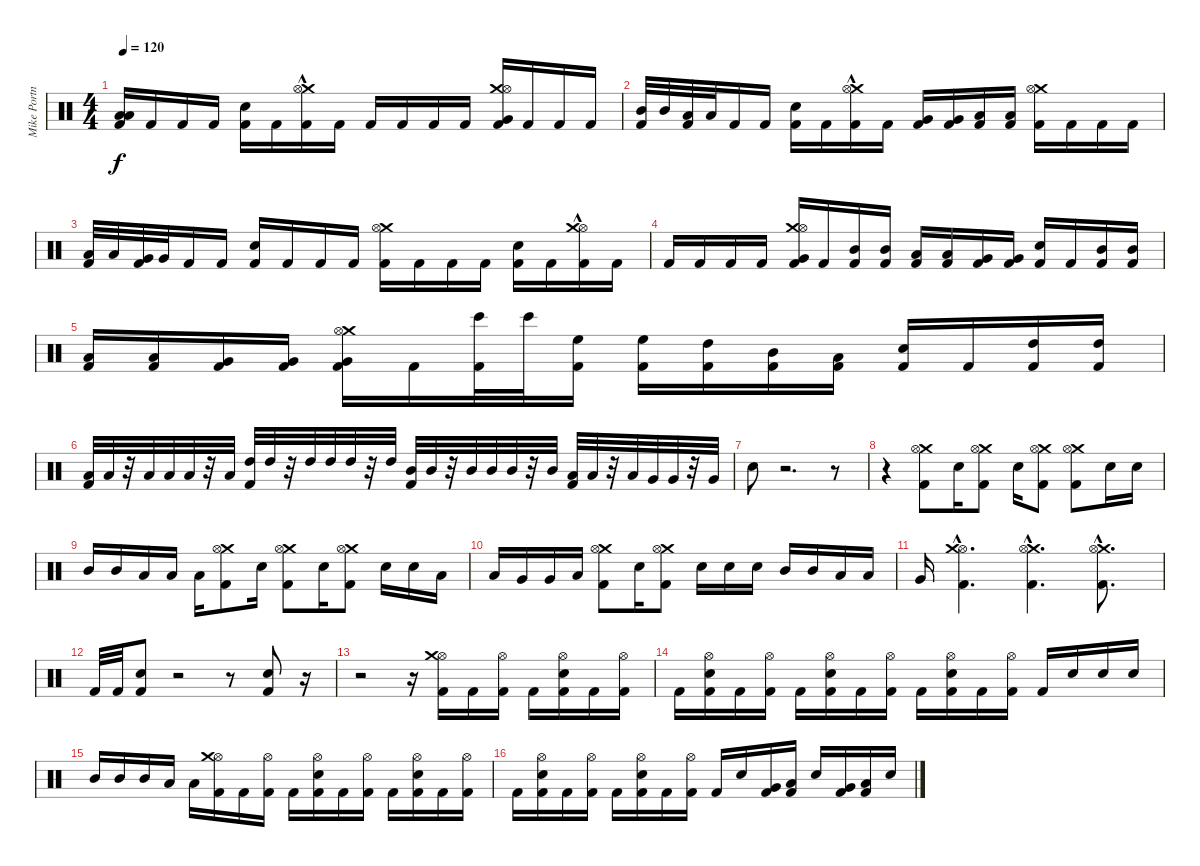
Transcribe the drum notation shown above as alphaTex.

\track ("Mike Portnoy - Batterie" "Mike Portn") {instrument percussion}
\staff {score}
\articulation defaults
\ts (4 4)
\tempo 120
\clef neutral
\ks c
("Low Floor Tom (hit)" "Low Tom (hit)" "Kick (hit) 2").16{dy f} "Kick (hit) 2".16 "Kick (hit) 2".16 "Kick (hit) 2".16 ("Electric Snare (hit)" "Kick (hit) 2").16 "Kick (hit) 2".16 ("Kick (hit) 2" "Crash medium (hit)"{hac} "Hi-Hat (open)"{hac}).16 "Kick (hit) 2".16 "Kick (hit) 2".16 "Kick (hit) 2".16 "Kick (hit) 2".16 "Kick (hit) 2".16 ("Very Low Tom (hit)" "Kick (hit) 2" "Crash medium (hit)" "Hi-Hat (open)").16 "Kick (hit) 2".16 "Kick (hit) 2".16 "Kick (hit) 2".16 |
("Mid Tom (hit)" "Kick (hit) 2").32 "Mid Tom (hit)".32 ("Low Tom (hit)" "Kick (hit) 2").32 "Low Tom (hit)".32 "Kick (hit) 2".16 "Kick (hit) 2".16 ("Electric Snare (hit)" "Kick (hit) 2").16 "Kick (hit) 2".16 ("Kick (hit) 2" "Crash medium (hit)"{hac} "Hi-Hat (open)"{hac}).16 "Kick (hit) 2".16 ("Very Low Tom (hit)" "Kick (hit) 2").16 ("Very Low Tom (hit)" "Kick (hit) 2").16 ("Low Floor Tom (hit)" "Kick (hit) 2").16 ("Low Floor Tom (hit)" "Kick (hit) 2").16 ("Kick (hit) 2" "Crash medium (hit)" "Hi-Hat (open)").16 "Kick (hit) 2".16 "Kick (hit) 2".16 "Kick (hit) 2".16 |
("Low Tom (hit)" "Kick (hit) 2").32 "Low Tom (hit)".32 ("Very Low Tom (hit)" "Kick (hit) 2").32 "Very Low Tom (hit)".32 "Kick (hit) 2".16 "Kick (hit) 2".16 ("Electric Snare (hit)" "Kick (hit) 2").16 "Kick (hit) 2".16 "Kick (hit) 2".16 "Kick (hit) 2".16 ("Kick (hit) 2" "Crash medium (hit)" "Hi-Hat (open)").16 "Kick (hit) 2".16 "Kick (hit) 2".16 "Kick (hit) 2".16 ("Electric Snare (hit)" "Kick (hit) 2").16 "Kick (hit) 2".16 ("Kick (hit) 2" "Hi-Hat (open)"{hac} "Crash medium (hit)"{hac}).16 "Kick (hit) 2".16 |
"Kick (hit) 2".16 "Kick (hit) 2".16 "Kick (hit) 2".16 "Kick (hit) 2".16 ("Very Low Tom (hit)" "Kick (hit) 2" "Crash medium (hit)" "Hi-Hat (open)").16 "Kick (hit) 2".16 ("Mid Tom (hit)" "Kick (hit) 2").16 ("Mid Tom (hit)" "Kick (hit) 2").16 ("Low Tom (hit)" "Kick (hit) 2").16 ("Low Tom (hit)" "Kick (hit) 2").16 ("Very Low Tom (hit)" "Kick (hit) 2").16 ("Very Low Tom (hit)" "Kick (hit) 2").16 ("Electric Snare (hit)" "Kick (hit) 2").16 "Kick (hit) 2".16 ("Mid Tom (hit)" "Kick (hit) 2").16 ("Mid Tom (hit)" "Kick (hit) 2").16 |
("Low Tom (hit)" "Kick (hit) 2").16 ("Low Tom (hit)" "Kick (hit) 2").16 ("Very Low Tom (hit)" "Kick (hit) 2").16 ("Very Low Tom (hit)" "Kick (hit) 2").16 ("Very Low Tom (hit)" "Kick (hit) 2" "Crash medium (hit)" "Hi-Hat (open)").16 "Kick (hit) 2".16 ("Bongo High (hit)" "Kick (hit) 2").32 "Bongo High (hit)".32 ("High Floor Tom (hit)" "Kick (hit) 2").16 ("High Floor Tom (hit)" "Kick (hit) 2").16 ("High Tom (hit)" "Kick (hit) 2").16 ("Mid Tom (hit)" "Kick (hit) 2").16 ("Low Tom (hit)" "Kick (hit) 2").16 ("Electric Snare (hit)" "Kick (hit) 2").16 "Kick (hit) 2".16 ("High Tom (hit)" "Kick (hit) 2").16 ("High Tom (hit)" "Kick (hit) 2").16 |
("Kick (hit) 2" "Low Floor Tom (hit)").32 "Low Floor Tom (hit)".32 r.32 "Low Floor Tom (hit)".32 "Low Floor Tom (hit)".32 "Low Floor Tom (hit)".32 r.32 "Low Floor Tom (hit)".32 ("Kick (hit) 2" "High Tom (hit)").32 "High Tom (hit)".32 r.32 "High Tom (hit)".32 "High Tom (hit)".32 "High Tom (hit)".32 r.32 "High Tom (hit)".32 ("Kick (hit) 2" "Mid Tom (hit)").32 "Mid Tom (hit)".32 r.32 "Mid Tom (hit)".32 "Mid Tom (hit)".32 "Mid Tom (hit)".32 r.32 "Mid Tom (hit)".32 ("Kick (hit) 2" "Low Tom (hit)").32 "Low Tom (hit)".32 r.32 "Low Tom (hit)".32 "Very Low Tom (hit)".32 "Very Low Tom (hit)".32 r.32 "Very Low Tom (hit)".32 |
"Electric Snare (hit)".8 r.2{d} r.8 |
r.4 ("Crash medium (hit)" "Hi-Hat (open)" "Kick (hit) 2").8 "Electric Snare (hit)".16 ("Crash medium (hit)" "Hi-Hat (open)" "Kick (hit) 2").8 "Electric Snare (hit)".16 ("Crash medium (hit)" "Hi-Hat (open)" "Kick (hit) 2").8 ("Crash medium (hit)" "Hi-Hat (open)" "Kick (hit) 2").8 "Electric Snare (hit)".16 "Electric Snare (hit)".16 |
"Mid Tom (hit)".16 "Mid Tom (hit)".16 "Low Tom (hit)".16 "Low Tom (hit)".16 "Low Floor Tom (hit)".16 ("Crash medium (hit)" "Hi-Hat (open)" "Kick (hit) 2").8 "Electric Snare (hit)".16 ("Crash medium (hit)" "Hi-Hat (open)" "Kick (hit) 2").8 "Electric Snare (hit)".16 ("Crash medium (hit)" "Hi-Hat (open)" "Kick (hit) 2").8 "Electric Snare (hit)".16 "Electric Snare (hit)".16 "Low Tom (hit)".16 |
"Low Tom (hit)".16 "Very Low Tom (hit)".16 "Very Low Tom (hit)".16 "Low Floor Tom (hit)".16 ("Crash medium (hit)" "Hi-Hat (open)" "Kick (hit) 2").8 "Electric Snare (hit)".16 ("Crash medium (hit)" "Hi-Hat (open)" "Kick (hit) 2").8 "Electric Snare (hit)".16 "Electric Snare (hit)".16 "Electric Snare (hit)".16 "Mid Tom (hit)".16 "Mid Tom (hit)".16 "Low Tom (hit)".16 "Low Tom (hit)".16 |
"Very Low Tom (hit)".16 ("Hi-Hat (open)"{hac} "Crash medium (hit)"{hac} "Kick (hit) 2"{hac}).4{d} ("Crash medium (hit)"{hac} "Hi-Hat (open)"{hac} "Kick (hit) 2"{hac}).4{d} ("Crash medium (hit)" "Hi-Hat (open)" "Kick (hit) 2"{hac}).8{d} |
"Kick (hit) 2".32 "Kick (hit) 2".32 ("Kick (hit) 2" "Snare (hit) 2").8{volume 11} r.2 r.8 ("Kick (hit) 2" "Snare (hit) 2").8 r.16 |
r.2 r.16 ("Hi-Hat (open)" "Crash medium (hit)" "Kick (hit) 2").16{volume 10} "Kick (hit) 2".16 ("Hi-Hat (open)" "Kick (hit) 2").16 "Kick (hit) 2".16 ("Hi-Hat (open)" "Electric Snare (hit)" "Kick (hit) 2").16 "Kick (hit) 2".16 ("Hi-Hat (open)" "Kick (hit) 2").16 |
"Kick (hit) 2".16 ("Hi-Hat (open)" "Electric Snare (hit)" "Kick (hit) 2").16 "Kick (hit) 2".16 ("Hi-Hat (open)" "Kick (hit) 2").16 "Kick (hit) 2".16 ("Hi-Hat (open)" "Electric Snare (hit)" "Kick (hit) 2").16 "Kick (hit) 2".16 ("Hi-Hat (open)" "Kick (hit) 2").16 "Kick (hit) 2".16 ("Electric Snare (hit)" "Hi-Hat (open)" "Kick (hit) 2").16 "Kick (hit) 2".16 ("Hi-Hat (open)" "Kick (hit) 2").16 "Kick (hit) 2".16 "Electric Snare (hit)".16 "Electric Snare (hit)".16 "Electric Snare (hit)".16 |
"Mid Tom (hit)".16 "Mid Tom (hit)".16 "Mid Tom (hit)".16 "Low Tom (hit)".16 "Low Tom (hit)".16 ("Hi-Hat (open)" "Crash medium (hit)" "Kick (hit) 2").16{volume 10} "Kick (hit) 2".16 ("Hi-Hat (open)" "Kick (hit) 2").16 "Kick (hit) 2".16 ("Hi-Hat (open)" "Electric Snare (hit)" "Kick (hit) 2").16 "Kick (hit) 2".16 ("Hi-Hat (open)" "Kick (hit) 2").16 "Kick (hit) 2".16 ("Hi-Hat (open)" "Electric Snare (hit)" "Kick (hit) 2").16 "Kick (hit) 2".16 ("Hi-Hat (open)" "Kick (hit) 2").16 |
"Kick (hit) 2".16 ("Hi-Hat (open)" "Electric Snare (hit)" "Kick (hit) 2").16 "Kick (hit) 2".16 ("Hi-Hat (open)" "Kick (hit) 2").16 "Kick (hit) 2".16 ("Electric Snare (hit)" "Hi-Hat (open)" "Kick (hit) 2").16 "Kick (hit) 2".16 ("Hi-Hat (open)" "Kick (hit) 2").16 "Kick (hit) 2".16 "Electric Snare (hit)".16 ("Kick (hit) 2" "Very Low Tom (hit)").16 ("Kick (hit) 2" "Low Floor Tom (hit)").16 "Electric Snare (hit)".16 ("Kick (hit) 2" "Very Low Tom (hit)").16 ("Kick (hit) 2" "Low Floor Tom (hit)").16 "Electric Snare (hit)".16
